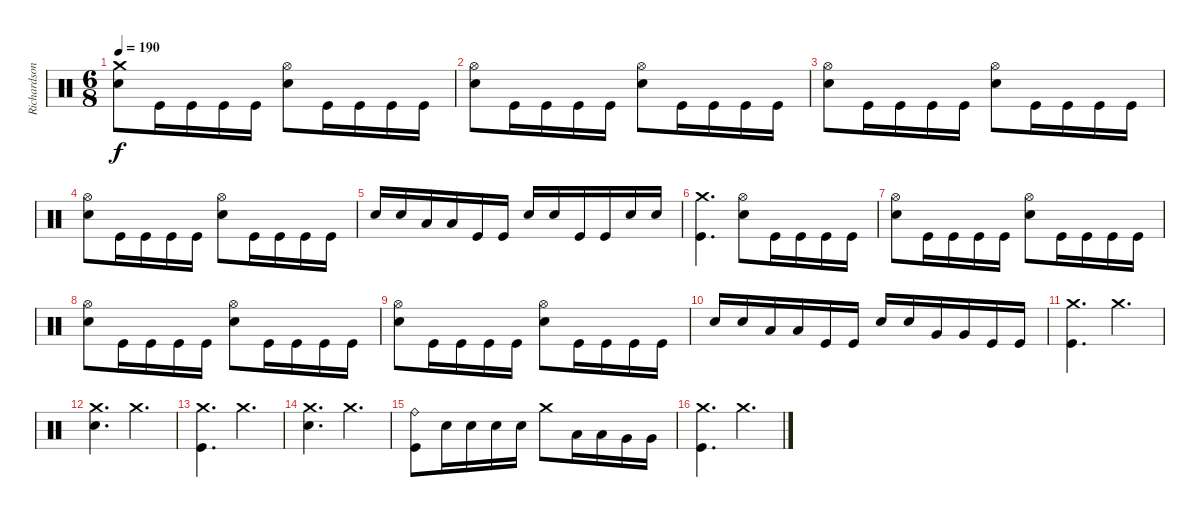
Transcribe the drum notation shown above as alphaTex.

\track ("Richardson" "Richardson") {instrument percussion}
\staff {score}
\articulation defaults
\ts (6 8)
\tempo 190
\clef neutral
\ks c
("Crash medium (hit)" "Electric Snare (hit)").8{dy f} "Kick (hit)".16 "Kick (hit)".16 "Kick (hit)".16 "Kick (hit)".16 ("Hi-Hat (open)" "Electric Snare (hit)").8 "Kick (hit)".16 "Kick (hit)".16 "Kick (hit)".16 "Kick (hit)".16 |
("Hi-Hat (open)" "Electric Snare (hit)").8 "Kick (hit)".16 "Kick (hit)".16 "Kick (hit)".16 "Kick (hit)".16 ("Hi-Hat (open)" "Electric Snare (hit)").8 "Kick (hit)".16 "Kick (hit)".16 "Kick (hit)".16 "Kick (hit)".16 |
("Hi-Hat (open)" "Electric Snare (hit)").8 "Kick (hit)".16 "Kick (hit)".16 "Kick (hit)".16 "Kick (hit)".16 ("Hi-Hat (open)" "Electric Snare (hit)").8 "Kick (hit)".16 "Kick (hit)".16 "Kick (hit)".16 "Kick (hit)".16 |
("Hi-Hat (open)" "Electric Snare (hit)").8 "Kick (hit)".16 "Kick (hit)".16 "Kick (hit)".16 "Kick (hit)".16 ("Hi-Hat (open)" "Electric Snare (hit)").8 "Kick (hit)".16 "Kick (hit)".16 "Kick (hit)".16 "Kick (hit)".16 |
"Electric Snare (hit)".16 "Electric Snare (hit)".16 "Low Tom (hit)".16 "Low Tom (hit)".16 "Kick (hit)".16 "Kick (hit)".16 "Electric Snare (hit)".16 "Electric Snare (hit)".16 "Kick (hit)".16 "Kick (hit)".16 "Electric Snare (hit)".16 "Electric Snare (hit)".16 |
("Crash medium (hit)" "Kick (hit)").4{d} ("Hi-Hat (open)" "Electric Snare (hit)").8 "Kick (hit)".16 "Kick (hit)".16 "Kick (hit)".16 "Kick (hit)".16 |
("Hi-Hat (open)" "Electric Snare (hit)").8 "Kick (hit)".16 "Kick (hit)".16 "Kick (hit)".16 "Kick (hit)".16 ("Hi-Hat (open)" "Electric Snare (hit)").8 "Kick (hit)".16 "Kick (hit)".16 "Kick (hit)".16 "Kick (hit)".16 |
("Hi-Hat (open)" "Electric Snare (hit)").8 "Kick (hit)".16 "Kick (hit)".16 "Kick (hit)".16 "Kick (hit)".16 ("Hi-Hat (open)" "Electric Snare (hit)").8 "Kick (hit)".16 "Kick (hit)".16 "Kick (hit)".16 "Kick (hit)".16 |
("Hi-Hat (open)" "Electric Snare (hit)").8 "Kick (hit)".16 "Kick (hit)".16 "Kick (hit)".16 "Kick (hit)".16 ("Hi-Hat (open)" "Electric Snare (hit)").8 "Kick (hit)".16 "Kick (hit)".16 "Kick (hit)".16 "Kick (hit)".16 |
"Electric Snare (hit)".16 "Electric Snare (hit)".16 "Low Tom (hit)".16 "Low Tom (hit)".16 "Kick (hit)".16 "Kick (hit)".16 "Electric Snare (hit)".16 "Electric Snare (hit)".16 "Very Low Tom (hit)".16 "Very Low Tom (hit)".16 "Kick (hit)".16 "Kick (hit)".16 |
("Crash medium (hit)" "Kick (hit)").4{d} "Crash medium (hit)".4{d} |
("Crash medium (hit)" "Electric Snare (hit)").4{d} "Crash medium (hit)".4{d} |
("Crash medium (hit)" "Kick (hit)").4{d} "Crash medium (hit)".4{d} |
("Crash medium (hit)" "Electric Snare (hit)").4{d} "Crash medium (hit)".4{d} |
("Ride (bell)" "Kick (hit)").8 "Electric Snare (hit)".16 "Electric Snare (hit)".16 "Electric Snare (hit)".16 "Electric Snare (hit)".16 "Crash medium (hit)".8 "Low Tom (hit)".16 "Low Tom (hit)".16 "Very Low Tom (hit)".16 "Very Low Tom (hit)".16 |
("Crash medium (hit)" "Kick (hit)").4{d} "Crash medium (hit)".4{d}
